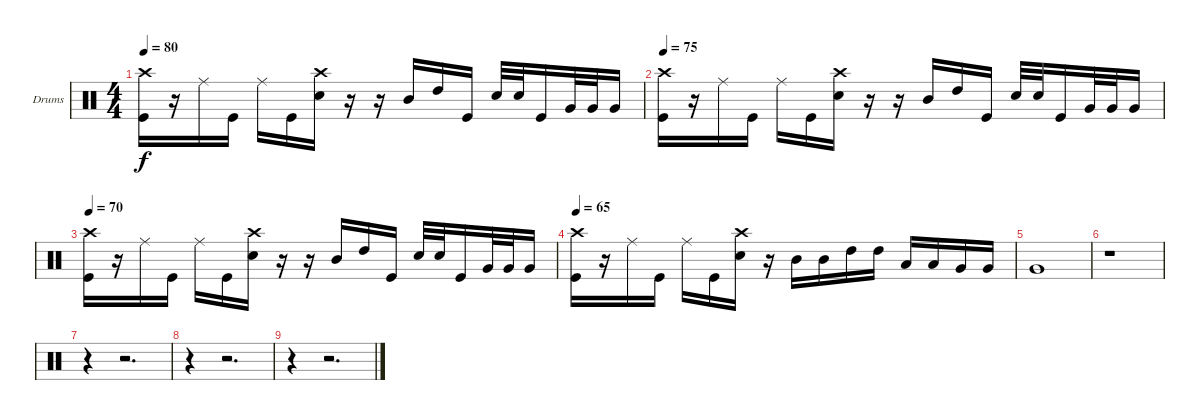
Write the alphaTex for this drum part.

\bracketExtendMode groupsimilarinstruments
\firstSystemTrackNameOrientation horizontal
\otherSystemsTrackNameOrientation horizontal
\track ("Drumkit" "Drums") {instrument percussion}
\staff {score}
\articulation defaults
\ts (4 4)
\tempo 80
\clef neutral
\ks c
("Crash high (hit)" "Kick (hit)").16{dy f} r.16 "Ride (middle)".16 "Kick (hit)".16 "Ride (middle)".16 "Kick (hit)".16 ("Crash high (hit)" "Snare (hit) 2").16 r.16 r.16 "Mid Tom (hit)".16 "High Tom (hit)".16 "Kick (hit)".16 "Snare (hit) 2".32 "Snare (hit) 2".32 "Kick (hit)".16 "Very Low Tom (hit)".32 "Very Low Tom (hit)".32 "Very Low Tom (hit)".16 |
\tempo 75
("Crash high (hit)" "Kick (hit)").16 r.16 "Ride (middle)".16 "Kick (hit)".16 "Ride (middle)".16 "Kick (hit)".16 ("Crash high (hit)" "Snare (hit) 2").16 r.16 r.16 "Mid Tom (hit)".16 "High Tom (hit)".16 "Kick (hit)".16 "Snare (hit) 2".32 "Snare (hit) 2".32 "Kick (hit)".16 "Very Low Tom (hit)".32 "Very Low Tom (hit)".32 "Very Low Tom (hit)".16 |
\tempo 70
("Crash high (hit)" "Kick (hit)").16 r.16 "Ride (middle)".16 "Kick (hit)".16 "Ride (middle)".16 "Kick (hit)".16 ("Crash high (hit)" "Snare (hit) 2").16 r.16 r.16 "Mid Tom (hit)".16 "High Tom (hit)".16 "Kick (hit)".16 "Snare (hit) 2".32 "Snare (hit) 2".32 "Kick (hit)".16 "Very Low Tom (hit)".32 "Very Low Tom (hit)".32 "Very Low Tom (hit)".16 |
\tempo 65
("Crash high (hit)" "Kick (hit)").16 r.16 "Ride (middle)".16 "Kick (hit)".16 "Ride (middle)".16 "Kick (hit)".16 ("Crash high (hit)" "Snare (hit) 2").16 r.16 "Mid Tom (hit)".16 "Mid Tom (hit)".16 "High Tom (hit)".16 "High Tom (hit)".16 "Low Tom (hit)".16 "Low Tom (hit)".16 "Very Low Tom (hit)".16 "Very Low Tom (hit)".16 |
"Very Low Tom (hit)".1 |
r.1 |
r.4 r.2{d} |
r.4 r.2{d} |
r.4 r.2{d}
